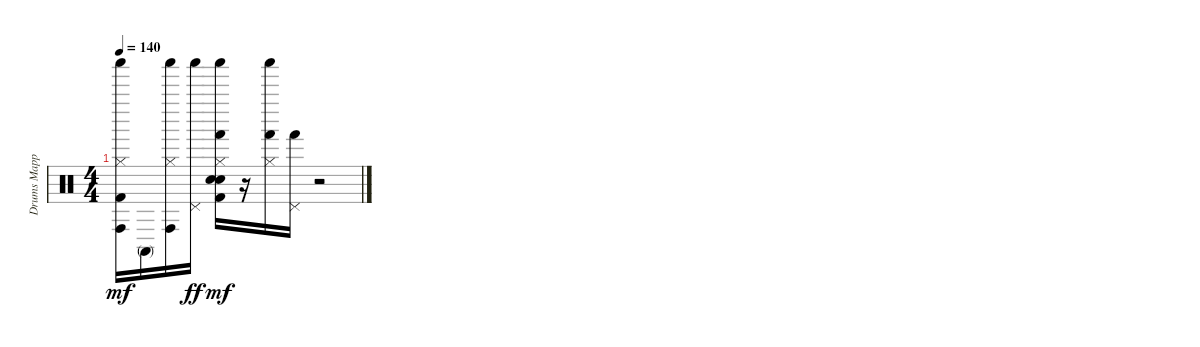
\track ("Drums Mapped" "Drums Mapp") {instrument percussion}
\staff {score}
\articulation defaults
\ts (4 4)
\tempo 140
\clef neutral
\ks c
("Kick (hit) 2" "Hi-Hat (closed)" "Conga high (hit)" "Shaker (hit)").16{dy mf} "Conga high (mute)".16 ("Hi-Hat (closed)" "Conga high (hit)" "Shaker (hit)").16 ("Pedal Hi-Hat (hit)" "Shaker (hit)").16{dy ff} ("Kick (hit) 2" "Hand Clap (hit)" "Electric Snare (hit)" "Hi-Hat (closed)" "Hand (hit)" "Shaker (hit)").16{dy mf} r.16 ("Hi-Hat (closed)" "Hand (hit)" "Shaker (hit)").16 ("Pedal Hi-Hat (hit)" "Hand (hit)").16 r.2
